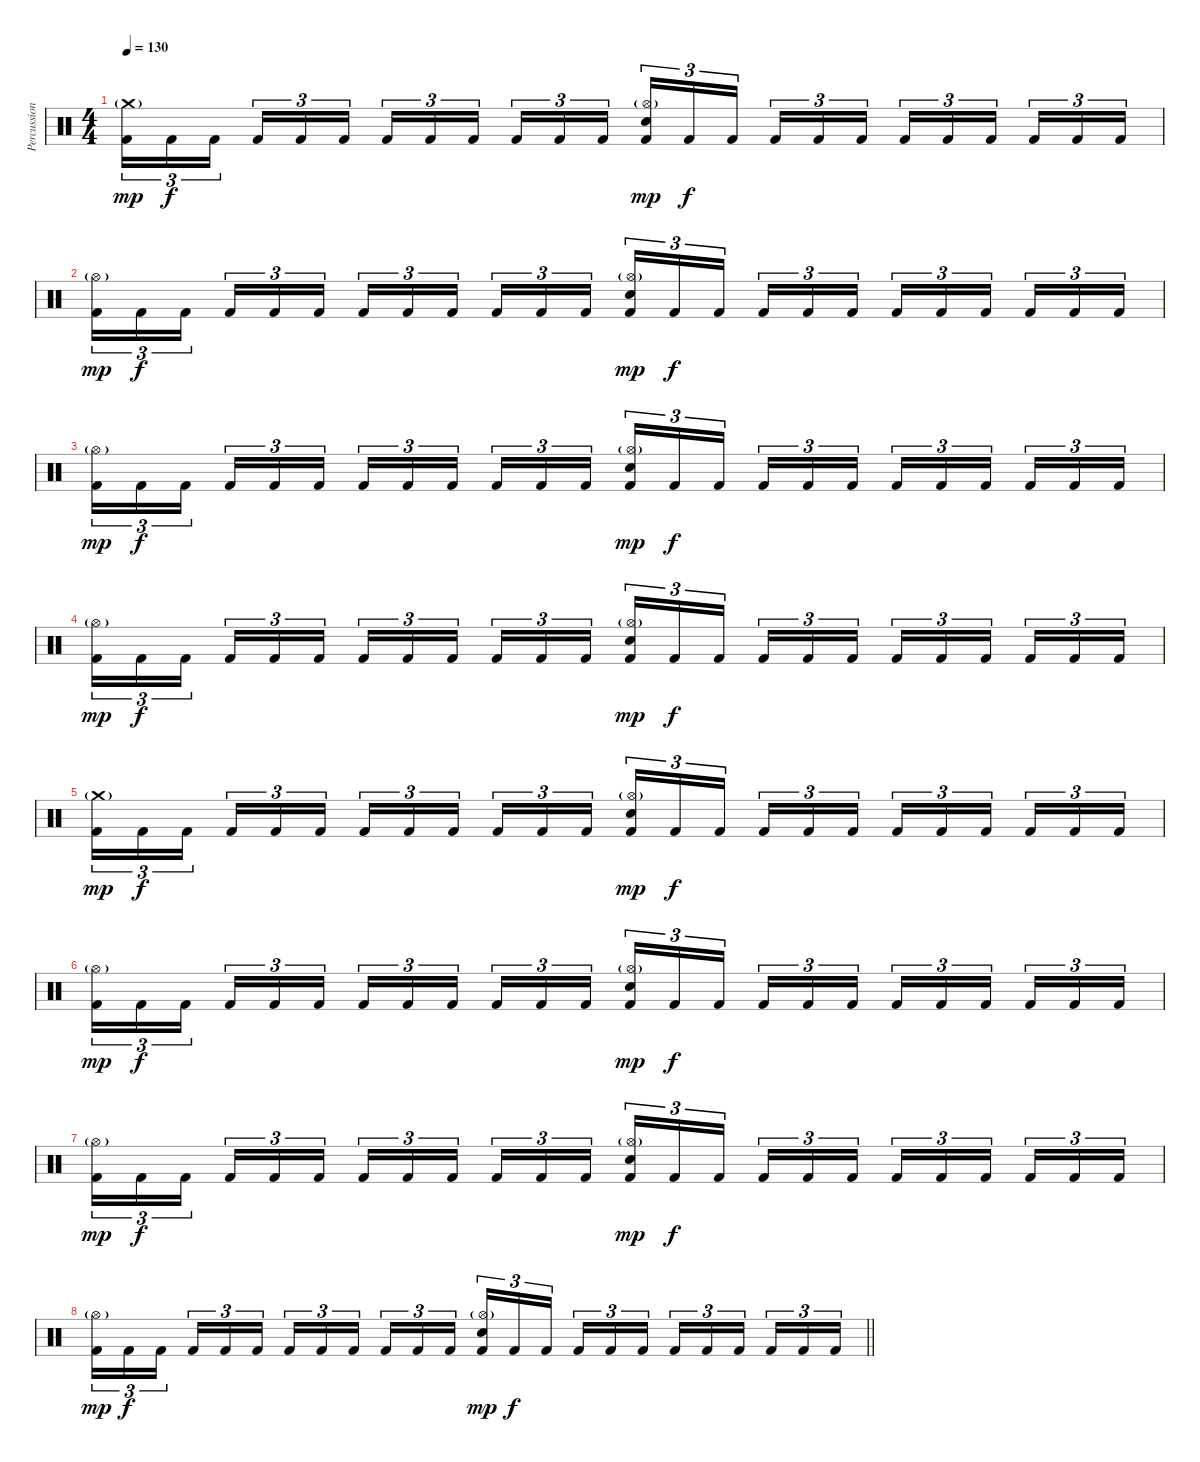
\track ("Percussions" "Percussion") {instrument percussion}
\staff {score}
\articulation defaults
\ts (4 4)
\tempo 130
\clef neutral
\ks c
("Crash medium (hit)"{g} "Kick (hit) 2").16{tu (3 2) dy mp} "Kick (hit) 2".16{tu (3 2) dy f} "Kick (hit) 2".16{tu (3 2)} "Kick (hit) 2".16{tu (3 2)} "Kick (hit) 2".16{tu (3 2)} "Kick (hit) 2".16{tu (3 2)} "Kick (hit) 2".16{tu (3 2)} "Kick (hit) 2".16{tu (3 2)} "Kick (hit) 2".16{tu (3 2)} "Kick (hit) 2".16{tu (3 2)} "Kick (hit) 2".16{tu (3 2)} "Kick (hit) 2".16{tu (3 2)} ("Hi-Hat (open)"{g} "Electric Snare (hit)" "Kick (hit) 2").16{tu (3 2) dy mp} "Kick (hit) 2".16{tu (3 2) dy f} "Kick (hit) 2".16{tu (3 2)} "Kick (hit) 2".16{tu (3 2)} "Kick (hit) 2".16{tu (3 2)} "Kick (hit) 2".16{tu (3 2)} "Kick (hit) 2".16{tu (3 2)} "Kick (hit) 2".16{tu (3 2)} "Kick (hit) 2".16{tu (3 2)} "Kick (hit) 2".16{tu (3 2)} "Kick (hit) 2".16{tu (3 2)} "Kick (hit) 2".16{tu (3 2)} |
("Hi-Hat (open)"{g} "Kick (hit) 2").16{tu (3 2) dy mp} "Kick (hit) 2".16{tu (3 2) dy f} "Kick (hit) 2".16{tu (3 2)} "Kick (hit) 2".16{tu (3 2)} "Kick (hit) 2".16{tu (3 2)} "Kick (hit) 2".16{tu (3 2)} "Kick (hit) 2".16{tu (3 2)} "Kick (hit) 2".16{tu (3 2)} "Kick (hit) 2".16{tu (3 2)} "Kick (hit) 2".16{tu (3 2)} "Kick (hit) 2".16{tu (3 2)} "Kick (hit) 2".16{tu (3 2)} ("Hi-Hat (open)"{g} "Electric Snare (hit)" "Kick (hit) 2").16{tu (3 2) dy mp} "Kick (hit) 2".16{tu (3 2) dy f} "Kick (hit) 2".16{tu (3 2)} "Kick (hit) 2".16{tu (3 2)} "Kick (hit) 2".16{tu (3 2)} "Kick (hit) 2".16{tu (3 2)} "Kick (hit) 2".16{tu (3 2)} "Kick (hit) 2".16{tu (3 2)} "Kick (hit) 2".16{tu (3 2)} "Kick (hit) 2".16{tu (3 2)} "Kick (hit) 2".16{tu (3 2)} "Kick (hit) 2".16{tu (3 2)} |
("Hi-Hat (open)"{g} "Kick (hit) 2").16{tu (3 2) dy mp} "Kick (hit) 2".16{tu (3 2) dy f} "Kick (hit) 2".16{tu (3 2)} "Kick (hit) 2".16{tu (3 2)} "Kick (hit) 2".16{tu (3 2)} "Kick (hit) 2".16{tu (3 2)} "Kick (hit) 2".16{tu (3 2)} "Kick (hit) 2".16{tu (3 2)} "Kick (hit) 2".16{tu (3 2)} "Kick (hit) 2".16{tu (3 2)} "Kick (hit) 2".16{tu (3 2)} "Kick (hit) 2".16{tu (3 2)} ("Hi-Hat (open)"{g} "Electric Snare (hit)" "Kick (hit) 2").16{tu (3 2) dy mp} "Kick (hit) 2".16{tu (3 2) dy f} "Kick (hit) 2".16{tu (3 2)} "Kick (hit) 2".16{tu (3 2)} "Kick (hit) 2".16{tu (3 2)} "Kick (hit) 2".16{tu (3 2)} "Kick (hit) 2".16{tu (3 2)} "Kick (hit) 2".16{tu (3 2)} "Kick (hit) 2".16{tu (3 2)} "Kick (hit) 2".16{tu (3 2)} "Kick (hit) 2".16{tu (3 2)} "Kick (hit) 2".16{tu (3 2)} |
("Hi-Hat (open)"{g} "Kick (hit) 2").16{tu (3 2) dy mp} "Kick (hit) 2".16{tu (3 2) dy f} "Kick (hit) 2".16{tu (3 2)} "Kick (hit) 2".16{tu (3 2)} "Kick (hit) 2".16{tu (3 2)} "Kick (hit) 2".16{tu (3 2)} "Kick (hit) 2".16{tu (3 2)} "Kick (hit) 2".16{tu (3 2)} "Kick (hit) 2".16{tu (3 2)} "Kick (hit) 2".16{tu (3 2)} "Kick (hit) 2".16{tu (3 2)} "Kick (hit) 2".16{tu (3 2)} ("Hi-Hat (open)"{g} "Electric Snare (hit)" "Kick (hit) 2").16{tu (3 2) dy mp} "Kick (hit) 2".16{tu (3 2) dy f} "Kick (hit) 2".16{tu (3 2)} "Kick (hit) 2".16{tu (3 2)} "Kick (hit) 2".16{tu (3 2)} "Kick (hit) 2".16{tu (3 2)} "Kick (hit) 2".16{tu (3 2)} "Kick (hit) 2".16{tu (3 2)} "Kick (hit) 2".16{tu (3 2)} "Kick (hit) 2".16{tu (3 2)} "Kick (hit) 2".16{tu (3 2)} "Kick (hit) 2".16{tu (3 2)} |
("Crash medium (hit)"{g} "Kick (hit) 2").16{tu (3 2) dy mp} "Kick (hit) 2".16{tu (3 2) dy f} "Kick (hit) 2".16{tu (3 2)} "Kick (hit) 2".16{tu (3 2)} "Kick (hit) 2".16{tu (3 2)} "Kick (hit) 2".16{tu (3 2)} "Kick (hit) 2".16{tu (3 2)} "Kick (hit) 2".16{tu (3 2)} "Kick (hit) 2".16{tu (3 2)} "Kick (hit) 2".16{tu (3 2)} "Kick (hit) 2".16{tu (3 2)} "Kick (hit) 2".16{tu (3 2)} ("Hi-Hat (open)"{g} "Electric Snare (hit)" "Kick (hit) 2").16{tu (3 2) dy mp} "Kick (hit) 2".16{tu (3 2) dy f} "Kick (hit) 2".16{tu (3 2)} "Kick (hit) 2".16{tu (3 2)} "Kick (hit) 2".16{tu (3 2)} "Kick (hit) 2".16{tu (3 2)} "Kick (hit) 2".16{tu (3 2)} "Kick (hit) 2".16{tu (3 2)} "Kick (hit) 2".16{tu (3 2)} "Kick (hit) 2".16{tu (3 2)} "Kick (hit) 2".16{tu (3 2)} "Kick (hit) 2".16{tu (3 2)} |
("Hi-Hat (open)"{g} "Kick (hit) 2").16{tu (3 2) dy mp} "Kick (hit) 2".16{tu (3 2) dy f} "Kick (hit) 2".16{tu (3 2)} "Kick (hit) 2".16{tu (3 2)} "Kick (hit) 2".16{tu (3 2)} "Kick (hit) 2".16{tu (3 2)} "Kick (hit) 2".16{tu (3 2)} "Kick (hit) 2".16{tu (3 2)} "Kick (hit) 2".16{tu (3 2)} "Kick (hit) 2".16{tu (3 2)} "Kick (hit) 2".16{tu (3 2)} "Kick (hit) 2".16{tu (3 2)} ("Hi-Hat (open)"{g} "Electric Snare (hit)" "Kick (hit) 2").16{tu (3 2) dy mp} "Kick (hit) 2".16{tu (3 2) dy f} "Kick (hit) 2".16{tu (3 2)} "Kick (hit) 2".16{tu (3 2)} "Kick (hit) 2".16{tu (3 2)} "Kick (hit) 2".16{tu (3 2)} "Kick (hit) 2".16{tu (3 2)} "Kick (hit) 2".16{tu (3 2)} "Kick (hit) 2".16{tu (3 2)} "Kick (hit) 2".16{tu (3 2)} "Kick (hit) 2".16{tu (3 2)} "Kick (hit) 2".16{tu (3 2)} |
("Hi-Hat (open)"{g} "Kick (hit) 2").16{tu (3 2) dy mp} "Kick (hit) 2".16{tu (3 2) dy f} "Kick (hit) 2".16{tu (3 2)} "Kick (hit) 2".16{tu (3 2)} "Kick (hit) 2".16{tu (3 2)} "Kick (hit) 2".16{tu (3 2)} "Kick (hit) 2".16{tu (3 2)} "Kick (hit) 2".16{tu (3 2)} "Kick (hit) 2".16{tu (3 2)} "Kick (hit) 2".16{tu (3 2)} "Kick (hit) 2".16{tu (3 2)} "Kick (hit) 2".16{tu (3 2)} ("Hi-Hat (open)"{g} "Electric Snare (hit)" "Kick (hit) 2").16{tu (3 2) dy mp} "Kick (hit) 2".16{tu (3 2) dy f} "Kick (hit) 2".16{tu (3 2)} "Kick (hit) 2".16{tu (3 2)} "Kick (hit) 2".16{tu (3 2)} "Kick (hit) 2".16{tu (3 2)} "Kick (hit) 2".16{tu (3 2)} "Kick (hit) 2".16{tu (3 2)} "Kick (hit) 2".16{tu (3 2)} "Kick (hit) 2".16{tu (3 2)} "Kick (hit) 2".16{tu (3 2)} "Kick (hit) 2".16{tu (3 2)} |
\barLineRight lightlight
("Hi-Hat (open)"{g} "Kick (hit) 2").16{tu (3 2) dy mp} "Kick (hit) 2".16{tu (3 2) dy f} "Kick (hit) 2".16{tu (3 2)} "Kick (hit) 2".16{tu (3 2)} "Kick (hit) 2".16{tu (3 2)} "Kick (hit) 2".16{tu (3 2)} "Kick (hit) 2".16{tu (3 2)} "Kick (hit) 2".16{tu (3 2)} "Kick (hit) 2".16{tu (3 2)} "Kick (hit) 2".16{tu (3 2)} "Kick (hit) 2".16{tu (3 2)} "Kick (hit) 2".16{tu (3 2)} ("Hi-Hat (open)"{g} "Electric Snare (hit)" "Kick (hit) 2").16{tu (3 2) dy mp} "Kick (hit) 2".16{tu (3 2) dy f} "Kick (hit) 2".16{tu (3 2)} "Kick (hit) 2".16{tu (3 2)} "Kick (hit) 2".16{tu (3 2)} "Kick (hit) 2".16{tu (3 2)} "Kick (hit) 2".16{tu (3 2)} "Kick (hit) 2".16{tu (3 2)} "Kick (hit) 2".16{tu (3 2)} "Kick (hit) 2".16{tu (3 2)} "Kick (hit) 2".16{tu (3 2)} "Kick (hit) 2".16{tu (3 2)}
